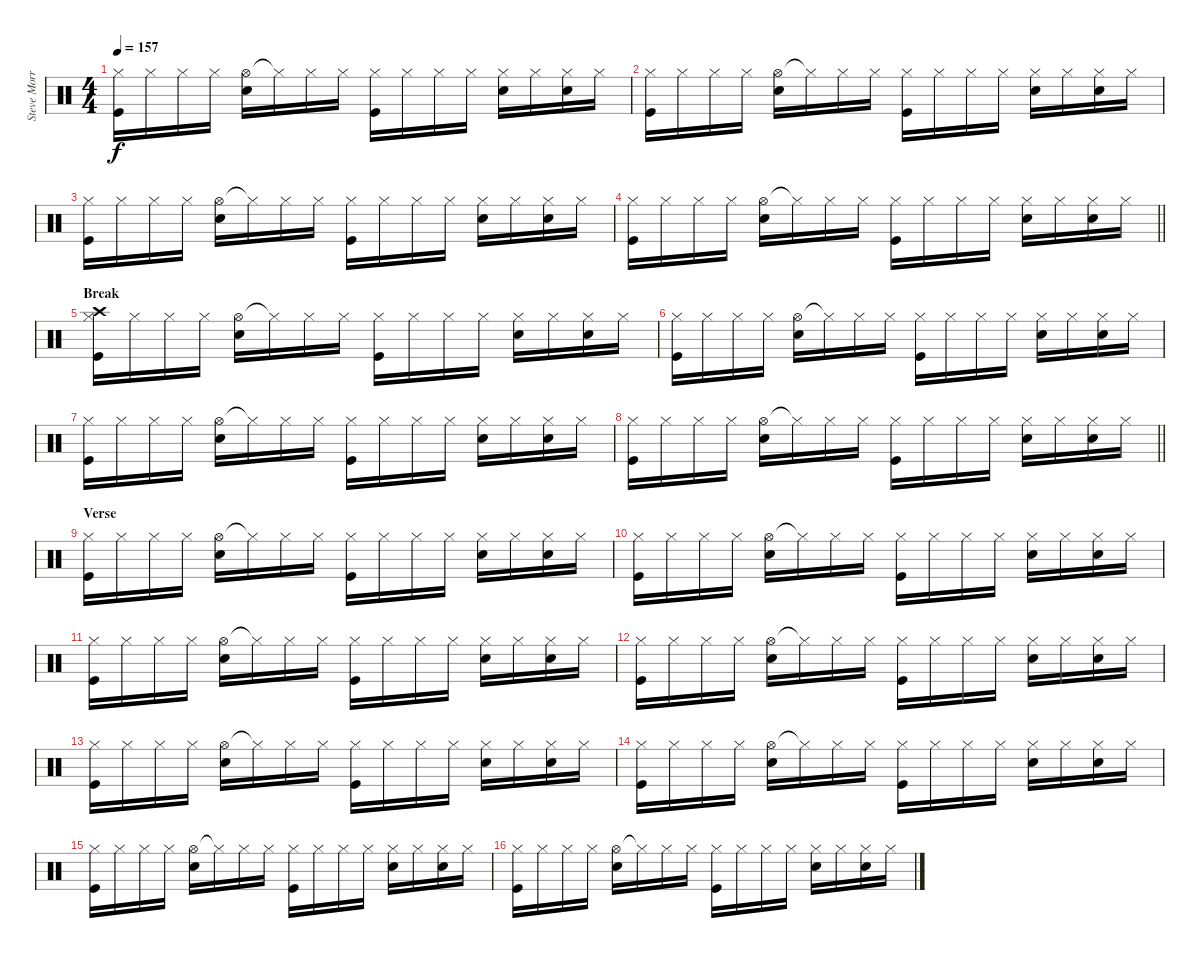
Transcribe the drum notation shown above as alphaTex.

\track ("Steve Morris" "Steve Morr") {instrument percussion}
\staff {score}
\articulation defaults
\ts (4 4)
\tempo 157
\clef neutral
\ks c
("Hi-Hat (closed)" "Kick (hit)").16{dy f} "Hi-Hat (closed)".16 "Hi-Hat (closed)".16 "Hi-Hat (closed)".16 ("Hi-Hat (open)" "Electric Snare (hit)").16 "Hi-Hat (closed)"{t}.16 "Hi-Hat (closed)".16 "Hi-Hat (closed)".16 ("Hi-Hat (closed)" "Kick (hit)").16 "Hi-Hat (closed)".16 "Hi-Hat (closed)".16 "Hi-Hat (closed)".16 ("Hi-Hat (closed)" "Electric Snare (hit)").16 "Hi-Hat (closed)".16 ("Hi-Hat (closed)" "Electric Snare (hit)").16 "Hi-Hat (closed)".16 |
("Hi-Hat (closed)" "Kick (hit)").16 "Hi-Hat (closed)".16 "Hi-Hat (closed)".16 "Hi-Hat (closed)".16 ("Hi-Hat (open)" "Electric Snare (hit)").16 "Hi-Hat (closed)"{t}.16 "Hi-Hat (closed)".16 "Hi-Hat (closed)".16 ("Hi-Hat (closed)" "Kick (hit)").16 "Hi-Hat (closed)".16 "Hi-Hat (closed)".16 "Hi-Hat (closed)".16 ("Hi-Hat (closed)" "Electric Snare (hit)").16 "Hi-Hat (closed)".16 ("Hi-Hat (closed)" "Electric Snare (hit)").16 "Hi-Hat (closed)".16 |
("Hi-Hat (closed)" "Kick (hit)").16 "Hi-Hat (closed)".16 "Hi-Hat (closed)".16 "Hi-Hat (closed)".16 ("Hi-Hat (open)" "Electric Snare (hit)").16 "Hi-Hat (closed)"{t}.16 "Hi-Hat (closed)".16 "Hi-Hat (closed)".16 ("Hi-Hat (closed)" "Kick (hit)").16 "Hi-Hat (closed)".16 "Hi-Hat (closed)".16 "Hi-Hat (closed)".16 ("Hi-Hat (closed)" "Electric Snare (hit)").16 "Hi-Hat (closed)".16 ("Hi-Hat (closed)" "Electric Snare (hit)").16 "Hi-Hat (closed)".16 |
\barLineRight lightlight
("Hi-Hat (closed)" "Kick (hit)").16 "Hi-Hat (closed)".16 "Hi-Hat (closed)".16 "Hi-Hat (closed)".16 ("Hi-Hat (open)" "Electric Snare (hit)").16 "Hi-Hat (closed)"{t}.16 "Hi-Hat (closed)".16 "Hi-Hat (closed)".16 ("Hi-Hat (closed)" "Kick (hit)").16 "Hi-Hat (closed)".16 "Hi-Hat (closed)".16 "Hi-Hat (closed)".16 ("Hi-Hat (closed)" "Electric Snare (hit)").16 "Hi-Hat (closed)".16 ("Hi-Hat (closed)" "Electric Snare (hit)").16 "Hi-Hat (closed)".16 |
\section ("" "Break")
("Hi-Hat (closed)" "Kick (hit)" "Crash high (hit)").16 "Hi-Hat (closed)".16 "Hi-Hat (closed)".16 "Hi-Hat (closed)".16 ("Hi-Hat (open)" "Electric Snare (hit)").16 "Hi-Hat (closed)"{t}.16 "Hi-Hat (closed)".16 "Hi-Hat (closed)".16 ("Hi-Hat (closed)" "Kick (hit)").16 "Hi-Hat (closed)".16 "Hi-Hat (closed)".16 "Hi-Hat (closed)".16 ("Hi-Hat (closed)" "Electric Snare (hit)").16 "Hi-Hat (closed)".16 ("Hi-Hat (closed)" "Electric Snare (hit)").16 "Hi-Hat (closed)".16 |
("Hi-Hat (closed)" "Kick (hit)").16 "Hi-Hat (closed)".16 "Hi-Hat (closed)".16 "Hi-Hat (closed)".16 ("Hi-Hat (open)" "Electric Snare (hit)").16 "Hi-Hat (closed)"{t}.16 "Hi-Hat (closed)".16 "Hi-Hat (closed)".16 ("Hi-Hat (closed)" "Kick (hit)").16 "Hi-Hat (closed)".16 "Hi-Hat (closed)".16 "Hi-Hat (closed)".16 ("Hi-Hat (closed)" "Electric Snare (hit)").16 "Hi-Hat (closed)".16 ("Hi-Hat (closed)" "Electric Snare (hit)").16 "Hi-Hat (closed)".16 |
("Hi-Hat (closed)" "Kick (hit)").16 "Hi-Hat (closed)".16 "Hi-Hat (closed)".16 "Hi-Hat (closed)".16 ("Hi-Hat (open)" "Electric Snare (hit)").16 "Hi-Hat (closed)"{t}.16 "Hi-Hat (closed)".16 "Hi-Hat (closed)".16 ("Hi-Hat (closed)" "Kick (hit)").16 "Hi-Hat (closed)".16 "Hi-Hat (closed)".16 "Hi-Hat (closed)".16 ("Hi-Hat (closed)" "Electric Snare (hit)").16 "Hi-Hat (closed)".16 ("Hi-Hat (closed)" "Electric Snare (hit)").16 "Hi-Hat (closed)".16 |
\barLineRight lightlight
("Hi-Hat (closed)" "Kick (hit)").16 "Hi-Hat (closed)".16 "Hi-Hat (closed)".16 "Hi-Hat (closed)".16 ("Hi-Hat (open)" "Electric Snare (hit)").16 "Hi-Hat (closed)"{t}.16 "Hi-Hat (closed)".16 "Hi-Hat (closed)".16 ("Hi-Hat (closed)" "Kick (hit)").16 "Hi-Hat (closed)".16 "Hi-Hat (closed)".16 "Hi-Hat (closed)".16 ("Hi-Hat (closed)" "Electric Snare (hit)").16 "Hi-Hat (closed)".16 ("Hi-Hat (closed)" "Electric Snare (hit)").16 "Hi-Hat (closed)".16 |
\section ("" "Verse")
("Hi-Hat (closed)" "Kick (hit)").16 "Hi-Hat (closed)".16 "Hi-Hat (closed)".16 "Hi-Hat (closed)".16 ("Hi-Hat (open)" "Electric Snare (hit)").16 "Hi-Hat (closed)"{t}.16 "Hi-Hat (closed)".16 "Hi-Hat (closed)".16 ("Hi-Hat (closed)" "Kick (hit)").16 "Hi-Hat (closed)".16 "Hi-Hat (closed)".16 "Hi-Hat (closed)".16 ("Hi-Hat (closed)" "Electric Snare (hit)").16 "Hi-Hat (closed)".16 ("Hi-Hat (closed)" "Electric Snare (hit)").16 "Hi-Hat (closed)".16 |
("Hi-Hat (closed)" "Kick (hit)").16 "Hi-Hat (closed)".16 "Hi-Hat (closed)".16 "Hi-Hat (closed)".16 ("Hi-Hat (open)" "Electric Snare (hit)").16 "Hi-Hat (closed)"{t}.16 "Hi-Hat (closed)".16 "Hi-Hat (closed)".16 ("Hi-Hat (closed)" "Kick (hit)").16 "Hi-Hat (closed)".16 "Hi-Hat (closed)".16 "Hi-Hat (closed)".16 ("Hi-Hat (closed)" "Electric Snare (hit)").16 "Hi-Hat (closed)".16 ("Hi-Hat (closed)" "Electric Snare (hit)").16 "Hi-Hat (closed)".16 |
("Hi-Hat (closed)" "Kick (hit)").16 "Hi-Hat (closed)".16 "Hi-Hat (closed)".16 "Hi-Hat (closed)".16 ("Hi-Hat (open)" "Electric Snare (hit)").16 "Hi-Hat (closed)"{t}.16 "Hi-Hat (closed)".16 "Hi-Hat (closed)".16 ("Hi-Hat (closed)" "Kick (hit)").16 "Hi-Hat (closed)".16 "Hi-Hat (closed)".16 "Hi-Hat (closed)".16 ("Hi-Hat (closed)" "Electric Snare (hit)").16 "Hi-Hat (closed)".16 ("Hi-Hat (closed)" "Electric Snare (hit)").16 "Hi-Hat (closed)".16 |
("Hi-Hat (closed)" "Kick (hit)").16 "Hi-Hat (closed)".16 "Hi-Hat (closed)".16 "Hi-Hat (closed)".16 ("Hi-Hat (open)" "Electric Snare (hit)").16 "Hi-Hat (closed)"{t}.16 "Hi-Hat (closed)".16 "Hi-Hat (closed)".16 ("Hi-Hat (closed)" "Kick (hit)").16 "Hi-Hat (closed)".16 "Hi-Hat (closed)".16 "Hi-Hat (closed)".16 ("Hi-Hat (closed)" "Electric Snare (hit)").16 "Hi-Hat (closed)".16 ("Hi-Hat (closed)" "Electric Snare (hit)").16 "Hi-Hat (closed)".16 |
("Hi-Hat (closed)" "Kick (hit)").16 "Hi-Hat (closed)".16 "Hi-Hat (closed)".16 "Hi-Hat (closed)".16 ("Hi-Hat (open)" "Electric Snare (hit)").16 "Hi-Hat (closed)"{t}.16 "Hi-Hat (closed)".16 "Hi-Hat (closed)".16 ("Hi-Hat (closed)" "Kick (hit)").16 "Hi-Hat (closed)".16 "Hi-Hat (closed)".16 "Hi-Hat (closed)".16 ("Hi-Hat (closed)" "Electric Snare (hit)").16 "Hi-Hat (closed)".16 ("Hi-Hat (closed)" "Electric Snare (hit)").16 "Hi-Hat (closed)".16 |
("Hi-Hat (closed)" "Kick (hit)").16 "Hi-Hat (closed)".16 "Hi-Hat (closed)".16 "Hi-Hat (closed)".16 ("Hi-Hat (open)" "Electric Snare (hit)").16 "Hi-Hat (closed)"{t}.16 "Hi-Hat (closed)".16 "Hi-Hat (closed)".16 ("Hi-Hat (closed)" "Kick (hit)").16 "Hi-Hat (closed)".16 "Hi-Hat (closed)".16 "Hi-Hat (closed)".16 ("Hi-Hat (closed)" "Electric Snare (hit)").16 "Hi-Hat (closed)".16 ("Hi-Hat (closed)" "Electric Snare (hit)").16 "Hi-Hat (closed)".16 |
("Hi-Hat (closed)" "Kick (hit)").16 "Hi-Hat (closed)".16 "Hi-Hat (closed)".16 "Hi-Hat (closed)".16 ("Hi-Hat (open)" "Electric Snare (hit)").16 "Hi-Hat (closed)"{t}.16 "Hi-Hat (closed)".16 "Hi-Hat (closed)".16 ("Hi-Hat (closed)" "Kick (hit)").16 "Hi-Hat (closed)".16 "Hi-Hat (closed)".16 "Hi-Hat (closed)".16 ("Hi-Hat (closed)" "Electric Snare (hit)").16 "Hi-Hat (closed)".16 ("Hi-Hat (closed)" "Electric Snare (hit)").16 "Hi-Hat (closed)".16 |
("Hi-Hat (closed)" "Kick (hit)").16 "Hi-Hat (closed)".16 "Hi-Hat (closed)".16 "Hi-Hat (closed)".16 ("Hi-Hat (open)" "Electric Snare (hit)").16 "Hi-Hat (closed)"{t}.16 "Hi-Hat (closed)".16 "Hi-Hat (closed)".16 ("Hi-Hat (closed)" "Kick (hit)").16 "Hi-Hat (closed)".16 "Hi-Hat (closed)".16 "Hi-Hat (closed)".16 ("Hi-Hat (closed)" "Electric Snare (hit)").16 "Hi-Hat (closed)".16 ("Hi-Hat (closed)" "Electric Snare (hit)").16 "Hi-Hat (closed)".16
